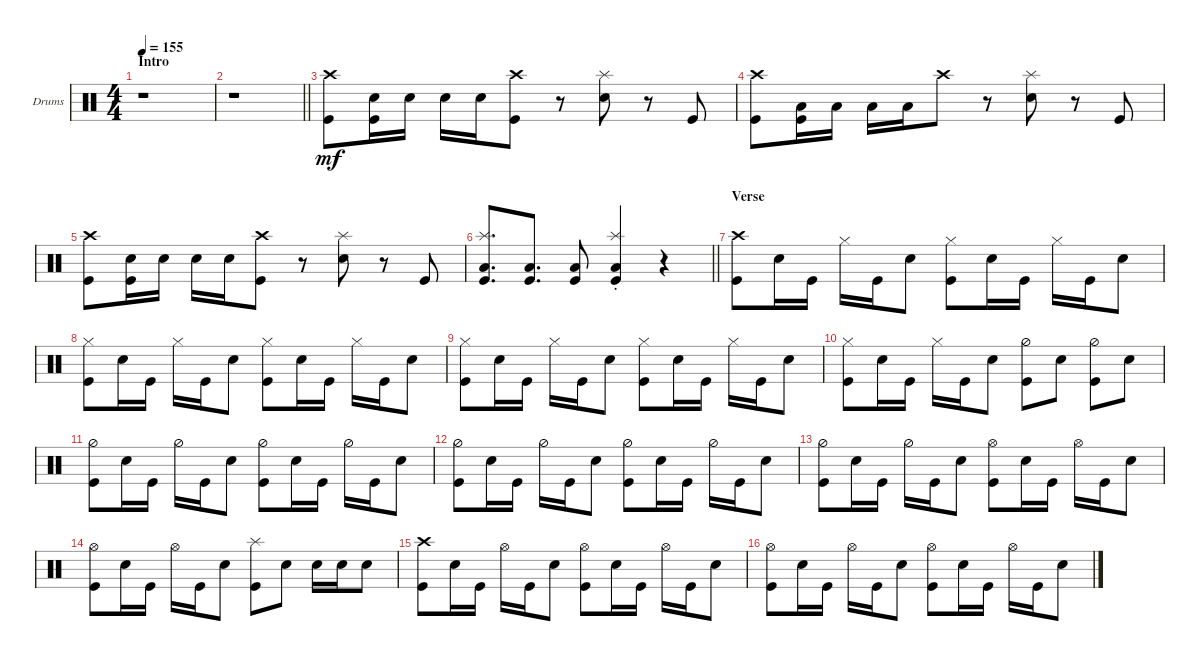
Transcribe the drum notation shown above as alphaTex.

\defaultSystemsLayout 4
\bracketExtendMode groupsimilarinstruments
\firstSystemTrackNameOrientation horizontal
\otherSystemsTrackNameOrientation horizontal
\track ("Drums" "Drums") {instrument percussion}
\staff {score}
\articulation defaults
\ts (4 4)
\section ("" "Intro")
\tempo 155
\clef neutral
\ks c
r.1{dy mf} |
\barLineRight lightlight
r.1 |
("Kick (hit)" "Crash high (hit)").8 ("Kick (hit)" "Snare (hit) 2").16 "Snare (hit) 2".16 "Snare (hit) 2".16 "Snare (hit) 2".16 ("Kick (hit)" "Crash high (hit)").8 r.8 ("Snare (hit) 2" "Splash (hit)").8 r.8 "Kick (hit)".8 |
("Kick (hit)" "Crash high (hit)").8 ("Kick (hit)" "Low Tom (hit)").16 "Low Tom (hit)".16 "Low Tom (hit)".16 "Low Tom (hit)".16 "Crash high (hit)".8 r.8 ("Snare (hit) 2" "Splash (hit)").8 r.8 "Kick (hit)".8 |
("Kick (hit)" "Crash high (hit)").8 ("Kick (hit)" "Snare (hit) 2").16 "Snare (hit) 2".16 "Snare (hit) 2".16 "Snare (hit) 2".16 ("Kick (hit)" "Crash high (hit)").8 r.8 ("Snare (hit) 2" "Splash (hit)").8 r.8 "Kick (hit)".8 |
\barLineRight lightlight
("Low Tom (hit)" "Kick (hit)" "Splash (hit)").8{d} ("Low Tom (hit)" "Kick (hit)").8{d} ("Low Tom (hit)" "Kick (hit)").8 ("Low Tom (hit)"{st} "Kick (hit)"{st} "Splash (hit)"{st}).4 r.4 |
\section ("" "Verse")
("Kick (hit)" "Crash high (hit)").8 "Snare (hit) 2".16 "Kick (hit)".16 "Hi-Hat (closed)".16 "Kick (hit)".16 "Snare (hit) 2".8 ("Kick (hit)" "Hi-Hat (closed)").8 "Snare (hit) 2".16 "Kick (hit)".16 "Hi-Hat (closed)".16 "Kick (hit)".16 "Snare (hit) 2".8 |
("Kick (hit)" "Hi-Hat (closed)").8 "Snare (hit) 2".16 "Kick (hit)".16 "Hi-Hat (closed)".16 "Kick (hit)".16 "Snare (hit) 2".8 ("Kick (hit)" "Hi-Hat (closed)").8 "Snare (hit) 2".16 "Kick (hit)".16 "Hi-Hat (closed)".16 "Kick (hit)".16 "Snare (hit) 2".8 |
("Kick (hit)" "Hi-Hat (closed)").8 "Snare (hit) 2".16 "Kick (hit)".16 "Hi-Hat (closed)".16 "Kick (hit)".16 "Snare (hit) 2".8 ("Kick (hit)" "Hi-Hat (closed)").8 "Snare (hit) 2".16 "Kick (hit)".16 "Hi-Hat (closed)".16 "Kick (hit)".16 "Snare (hit) 2".8 |
("Kick (hit)" "Hi-Hat (closed)").8 "Snare (hit) 2".16 "Kick (hit)".16 "Hi-Hat (closed)".16 "Kick (hit)".16 "Snare (hit) 2".8 ("Kick (hit)" "Hi-Hat (half)").8 "Snare (hit) 2".8 ("Kick (hit)" "Hi-Hat (half)").8 "Snare (hit) 2".8 |
("Kick (hit)" "Hi-Hat (half)").8 "Snare (hit) 2".16 "Kick (hit)".16 "Hi-Hat (half)".16 "Kick (hit)".16 "Snare (hit) 2".8 ("Kick (hit)" "Hi-Hat (half)").8 "Snare (hit) 2".16 "Kick (hit)".16 "Hi-Hat (half)".16 "Kick (hit)".16 "Snare (hit) 2".8 |
("Kick (hit)" "Hi-Hat (half)").8 "Snare (hit) 2".16 "Kick (hit)".16 "Hi-Hat (half)".16 "Kick (hit)".16 "Snare (hit) 2".8 ("Kick (hit)" "Hi-Hat (half)").8 "Snare (hit) 2".16 "Kick (hit)".16 "Hi-Hat (half)".16 "Kick (hit)".16 "Snare (hit) 2".8 |
("Kick (hit)" "Hi-Hat (half)").8 "Snare (hit) 2".16 "Kick (hit)".16 "Hi-Hat (half)".16 "Kick (hit)".16 "Snare (hit) 2".8 ("Kick (hit)" "Hi-Hat (open)").8 "Snare (hit) 2".16 "Kick (hit)".16 "Hi-Hat (open)".16 "Kick (hit)".16 "Snare (hit) 2".8 |
("Kick (hit)" "Hi-Hat (open)").8 "Snare (hit) 2".16 "Kick (hit)".16 "Hi-Hat (open)".16 "Kick (hit)".16 "Snare (hit) 2".8 ("Kick (hit)" "Splash (hit)").8 "Snare (hit) 2".8 "Snare (hit) 2".16 "Snare (hit) 2".16 "Snare (hit) 2".8 |
("Kick (hit)" "Crash high (hit)").8 "Snare (hit) 2".16 "Kick (hit)".16 "Hi-Hat (open)".16 "Kick (hit)".16 "Snare (hit) 2".8 ("Kick (hit)" "Hi-Hat (open)").8 "Snare (hit) 2".16 "Kick (hit)".16 "Hi-Hat (open)".16 "Kick (hit)".16 "Snare (hit) 2".8 |
("Kick (hit)" "Hi-Hat (open)").8 "Snare (hit) 2".16 "Kick (hit)".16 "Hi-Hat (open)".16 "Kick (hit)".16 "Snare (hit) 2".8 ("Kick (hit)" "Hi-Hat (open)").8 "Snare (hit) 2".16 "Kick (hit)".16 "Hi-Hat (open)".16 "Kick (hit)".16 "Snare (hit) 2".8
